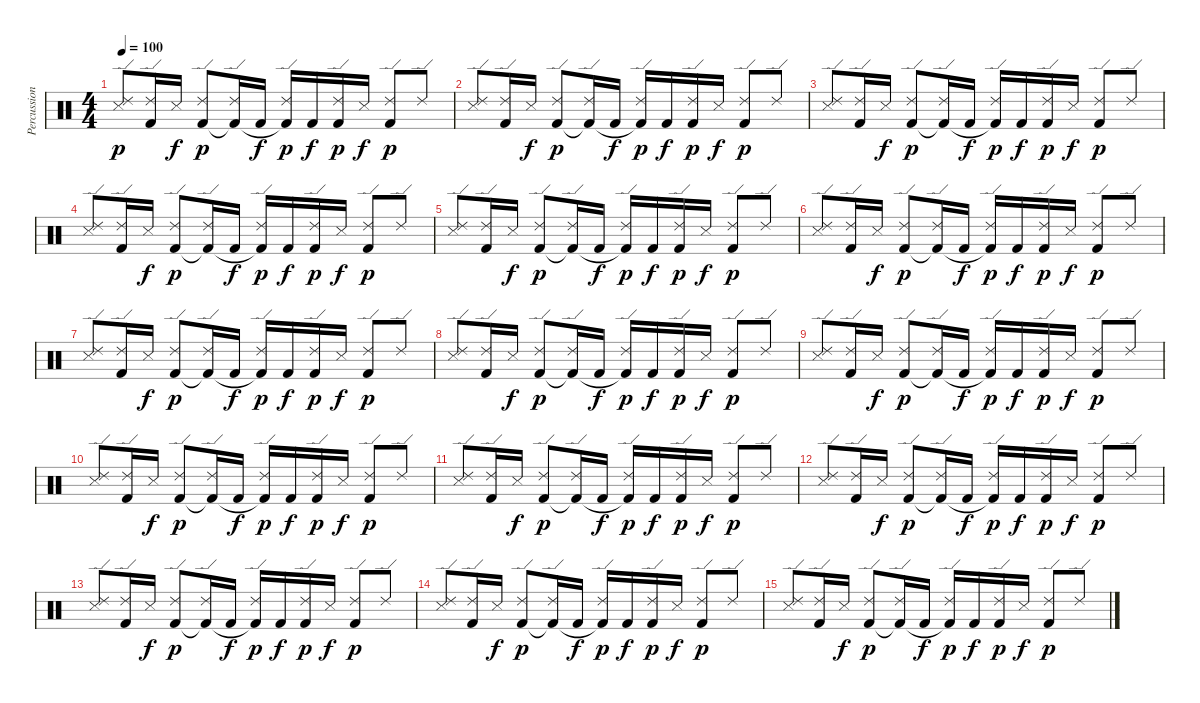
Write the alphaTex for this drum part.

\track ("Percussion" "Percussion") {instrument percussion}
\staff {score}
\articulation defaults
\ts (4 4)
\tempo 100
\clef neutral
\ks c
("Ride (edge) 2" "Snare (side stick) 3").8{dy p} ("Ride (edge) 2" "Kick (hit) 2").16 "Snare (side stick) 3".16{dy f} ("Ride (edge) 2" "Kick (hit) 2").8{dy p} ("Ride (edge) 2" "Kick (hit) 2"{t}).16 "Kick (hit) 2".16{dy f} ("Ride (edge) 2" "Kick (hit) 2"{t}).16{dy p} "Kick (hit) 2".16{dy f} ("Ride (edge) 2" "Kick (hit) 2").16{dy p} "Snare (side stick) 3".16{dy f} ("Ride (edge) 2" "Kick (hit) 2").8{dy p} "Ride (edge) 2".8 |
("Ride (edge) 2" "Snare (side stick) 3").8 ("Ride (edge) 2" "Kick (hit) 2").16 "Snare (side stick) 3".16{dy f} ("Ride (edge) 2" "Kick (hit) 2").8{dy p} ("Ride (edge) 2" "Kick (hit) 2"{t}).16 "Kick (hit) 2".16{dy f} ("Ride (edge) 2" "Kick (hit) 2"{t}).16{dy p} "Kick (hit) 2".16{dy f} ("Ride (edge) 2" "Kick (hit) 2").16{dy p} "Snare (side stick) 3".16{dy f} ("Ride (edge) 2" "Kick (hit) 2").8{dy p} "Ride (edge) 2".8 |
("Ride (edge) 2" "Snare (side stick) 3").8 ("Ride (edge) 2" "Kick (hit) 2").16 "Snare (side stick) 3".16{dy f} ("Ride (edge) 2" "Kick (hit) 2").8{dy p} ("Ride (edge) 2" "Kick (hit) 2"{t}).16 "Kick (hit) 2".16{dy f} ("Ride (edge) 2" "Kick (hit) 2"{t}).16{dy p} "Kick (hit) 2".16{dy f} ("Ride (edge) 2" "Kick (hit) 2").16{dy p} "Snare (side stick) 3".16{dy f} ("Ride (edge) 2" "Kick (hit) 2").8{dy p} "Ride (edge) 2".8 |
("Ride (edge) 2" "Snare (side stick) 3").8 ("Ride (edge) 2" "Kick (hit) 2").16 "Snare (side stick) 3".16{dy f} ("Ride (edge) 2" "Kick (hit) 2").8{dy p} ("Ride (edge) 2" "Kick (hit) 2"{t}).16 "Kick (hit) 2".16{dy f} ("Ride (edge) 2" "Kick (hit) 2"{t}).16{dy p} "Kick (hit) 2".16{dy f} ("Ride (edge) 2" "Kick (hit) 2").16{dy p} "Snare (side stick) 3".16{dy f} ("Ride (edge) 2" "Kick (hit) 2").8{dy p} "Ride (edge) 2".8 |
("Ride (edge) 2" "Snare (side stick) 3").8 ("Ride (edge) 2" "Kick (hit) 2").16 "Snare (side stick) 3".16{dy f} ("Ride (edge) 2" "Kick (hit) 2").8{dy p} ("Ride (edge) 2" "Kick (hit) 2"{t}).16 "Kick (hit) 2".16{dy f} ("Ride (edge) 2" "Kick (hit) 2"{t}).16{dy p} "Kick (hit) 2".16{dy f} ("Ride (edge) 2" "Kick (hit) 2").16{dy p} "Snare (side stick) 3".16{dy f} ("Ride (edge) 2" "Kick (hit) 2").8{dy p} "Ride (edge) 2".8 |
("Ride (edge) 2" "Snare (side stick) 3").8 ("Ride (edge) 2" "Kick (hit) 2").16 "Snare (side stick) 3".16{dy f} ("Ride (edge) 2" "Kick (hit) 2").8{dy p} ("Ride (edge) 2" "Kick (hit) 2"{t}).16 "Kick (hit) 2".16{dy f} ("Ride (edge) 2" "Kick (hit) 2"{t}).16{dy p} "Kick (hit) 2".16{dy f} ("Ride (edge) 2" "Kick (hit) 2").16{dy p} "Snare (side stick) 3".16{dy f} ("Ride (edge) 2" "Kick (hit) 2").8{dy p} "Ride (edge) 2".8 |
("Ride (edge) 2" "Snare (side stick) 3").8 ("Ride (edge) 2" "Kick (hit) 2").16 "Snare (side stick) 3".16{dy f} ("Ride (edge) 2" "Kick (hit) 2").8{dy p} ("Ride (edge) 2" "Kick (hit) 2"{t}).16 "Kick (hit) 2".16{dy f} ("Ride (edge) 2" "Kick (hit) 2"{t}).16{dy p} "Kick (hit) 2".16{dy f} ("Ride (edge) 2" "Kick (hit) 2").16{dy p} "Snare (side stick) 3".16{dy f} ("Ride (edge) 2" "Kick (hit) 2").8{dy p} "Ride (edge) 2".8 |
("Ride (edge) 2" "Snare (side stick) 3").8 ("Ride (edge) 2" "Kick (hit) 2").16 "Snare (side stick) 3".16{dy f} ("Ride (edge) 2" "Kick (hit) 2").8{dy p} ("Ride (edge) 2" "Kick (hit) 2"{t}).16 "Kick (hit) 2".16{dy f} ("Ride (edge) 2" "Kick (hit) 2"{t}).16{dy p} "Kick (hit) 2".16{dy f} ("Ride (edge) 2" "Kick (hit) 2").16{dy p} "Snare (side stick) 3".16{dy f} ("Ride (edge) 2" "Kick (hit) 2").8{dy p} "Ride (edge) 2".8 |
("Ride (edge) 2" "Snare (side stick) 3").8 ("Ride (edge) 2" "Kick (hit) 2").16 "Snare (side stick) 3".16{dy f} ("Ride (edge) 2" "Kick (hit) 2").8{dy p} ("Ride (edge) 2" "Kick (hit) 2"{t}).16 "Kick (hit) 2".16{dy f} ("Ride (edge) 2" "Kick (hit) 2"{t}).16{dy p} "Kick (hit) 2".16{dy f} ("Ride (edge) 2" "Kick (hit) 2").16{dy p} "Snare (side stick) 3".16{dy f} ("Ride (edge) 2" "Kick (hit) 2").8{dy p} "Ride (edge) 2".8 |
("Ride (edge) 2" "Snare (side stick) 3").8 ("Ride (edge) 2" "Kick (hit) 2").16 "Snare (side stick) 3".16{dy f} ("Ride (edge) 2" "Kick (hit) 2").8{dy p} ("Ride (edge) 2" "Kick (hit) 2"{t}).16 "Kick (hit) 2".16{dy f} ("Ride (edge) 2" "Kick (hit) 2"{t}).16{dy p} "Kick (hit) 2".16{dy f} ("Ride (edge) 2" "Kick (hit) 2").16{dy p} "Snare (side stick) 3".16{dy f} ("Ride (edge) 2" "Kick (hit) 2").8{dy p} "Ride (edge) 2".8 |
("Ride (edge) 2" "Snare (side stick) 3").8 ("Ride (edge) 2" "Kick (hit) 2").16 "Snare (side stick) 3".16{dy f} ("Ride (edge) 2" "Kick (hit) 2").8{dy p} ("Ride (edge) 2" "Kick (hit) 2"{t}).16 "Kick (hit) 2".16{dy f} ("Ride (edge) 2" "Kick (hit) 2"{t}).16{dy p} "Kick (hit) 2".16{dy f} ("Ride (edge) 2" "Kick (hit) 2").16{dy p} "Snare (side stick) 3".16{dy f} ("Ride (edge) 2" "Kick (hit) 2").8{dy p} "Ride (edge) 2".8 |
("Ride (edge) 2" "Snare (side stick) 3").8 ("Ride (edge) 2" "Kick (hit) 2").16 "Snare (side stick) 3".16{dy f} ("Ride (edge) 2" "Kick (hit) 2").8{dy p} ("Ride (edge) 2" "Kick (hit) 2"{t}).16 "Kick (hit) 2".16{dy f} ("Ride (edge) 2" "Kick (hit) 2"{t}).16{dy p} "Kick (hit) 2".16{dy f} ("Ride (edge) 2" "Kick (hit) 2").16{dy p} "Snare (side stick) 3".16{dy f} ("Ride (edge) 2" "Kick (hit) 2").8{dy p} "Ride (edge) 2".8 |
("Ride (edge) 2" "Snare (side stick) 3").8 ("Ride (edge) 2" "Kick (hit) 2").16 "Snare (side stick) 3".16{dy f} ("Ride (edge) 2" "Kick (hit) 2").8{dy p} ("Ride (edge) 2" "Kick (hit) 2"{t}).16 "Kick (hit) 2".16{dy f} ("Ride (edge) 2" "Kick (hit) 2"{t}).16{dy p} "Kick (hit) 2".16{dy f} ("Ride (edge) 2" "Kick (hit) 2").16{dy p} "Snare (side stick) 3".16{dy f} ("Ride (edge) 2" "Kick (hit) 2").8{dy p} "Ride (edge) 2".8 |
("Ride (edge) 2" "Snare (side stick) 3").8 ("Ride (edge) 2" "Kick (hit) 2").16 "Snare (side stick) 3".16{dy f} ("Ride (edge) 2" "Kick (hit) 2").8{dy p} ("Ride (edge) 2" "Kick (hit) 2"{t}).16 "Kick (hit) 2".16{dy f} ("Ride (edge) 2" "Kick (hit) 2"{t}).16{dy p} "Kick (hit) 2".16{dy f} ("Ride (edge) 2" "Kick (hit) 2").16{dy p} "Snare (side stick) 3".16{dy f} ("Ride (edge) 2" "Kick (hit) 2").8{dy p} "Ride (edge) 2".8 |
("Ride (edge) 2" "Snare (side stick) 3").8 ("Ride (edge) 2" "Kick (hit) 2").16 "Snare (side stick) 3".16{dy f} ("Ride (edge) 2" "Kick (hit) 2").8{dy p} ("Ride (edge) 2" "Kick (hit) 2"{t}).16 "Kick (hit) 2".16{dy f} ("Ride (edge) 2" "Kick (hit) 2"{t}).16{dy p} "Kick (hit) 2".16{dy f} ("Ride (edge) 2" "Kick (hit) 2").16{dy p} "Snare (side stick) 3".16{dy f} ("Ride (edge) 2" "Kick (hit) 2").8{dy p} "Ride (edge) 2".8
